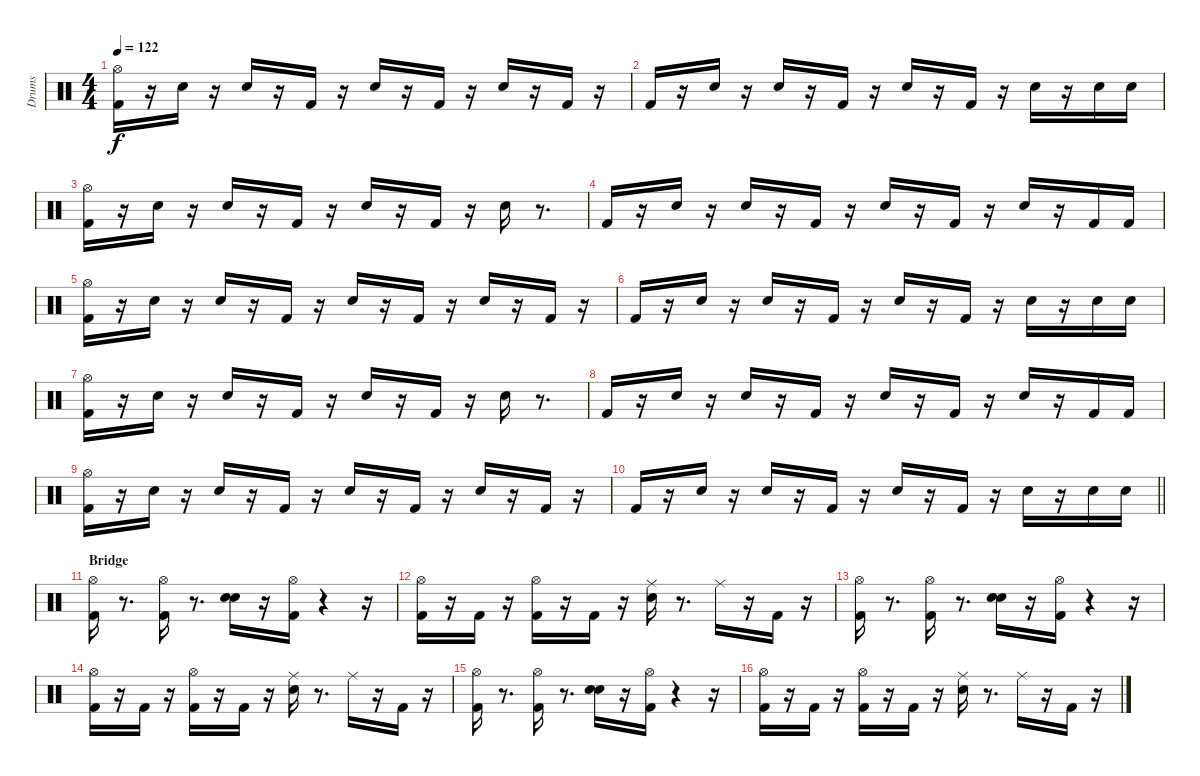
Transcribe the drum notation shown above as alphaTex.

\track ("Drums" "Drums") {instrument percussion}
\staff
\articulation defaults
\ts (4 4)
\tempo 122
\clef neutral
\ks c
("Hi-Hat (open)" "Kick (hit) 2").16{dy f} r.16 "Snare (hit) 2".16 r.16 "Snare (hit) 2".16 r.16 "Kick (hit) 2".16 r.16 "Snare (hit) 2".16 r.16 "Kick (hit) 2".16 r.16 "Snare (hit) 2".16 r.16 "Kick (hit) 2".16 r.16 |
"Kick (hit) 2".16 r.16 "Snare (hit) 2".16 r.16 "Snare (hit) 2".16 r.16 "Kick (hit) 2".16 r.16 "Snare (hit) 2".16 r.16 "Kick (hit) 2".16 r.16 "Snare (hit) 2".16 r.16 "Snare (hit) 2".16 "Snare (hit) 2".16 |
("Hi-Hat (open)" "Kick (hit) 2").16 r.16 "Snare (hit) 2".16 r.16 "Snare (hit) 2".16 r.16 "Kick (hit) 2".16 r.16 "Snare (hit) 2".16 r.16 "Kick (hit) 2".16 r.16 "Snare (hit) 2".16 r.8{d} |
"Kick (hit) 2".16 r.16 "Snare (hit) 2".16 r.16 "Snare (hit) 2".16 r.16 "Kick (hit) 2".16 r.16 "Snare (hit) 2".16 r.16 "Kick (hit) 2".16 r.16 "Snare (hit) 2".16 r.16 "Kick (hit) 2".16 "Kick (hit) 2".16 |
("Hi-Hat (open)" "Kick (hit) 2").16 r.16 "Snare (hit) 2".16 r.16 "Snare (hit) 2".16 r.16 "Kick (hit) 2".16 r.16 "Snare (hit) 2".16 r.16 "Kick (hit) 2".16 r.16 "Snare (hit) 2".16 r.16 "Kick (hit) 2".16 r.16 |
"Kick (hit) 2".16 r.16 "Snare (hit) 2".16 r.16 "Snare (hit) 2".16 r.16 "Kick (hit) 2".16 r.16 "Snare (hit) 2".16 r.16 "Kick (hit) 2".16 r.16 "Snare (hit) 2".16 r.16 "Snare (hit) 2".16 "Snare (hit) 2".16 |
("Hi-Hat (open)" "Kick (hit) 2").16 r.16 "Snare (hit) 2".16 r.16 "Snare (hit) 2".16 r.16 "Kick (hit) 2".16 r.16 "Snare (hit) 2".16 r.16 "Kick (hit) 2".16 r.16 "Snare (hit) 2".16 r.8{d} |
"Kick (hit) 2".16 r.16 "Snare (hit) 2".16 r.16 "Snare (hit) 2".16 r.16 "Kick (hit) 2".16 r.16 "Snare (hit) 2".16 r.16 "Kick (hit) 2".16 r.16 "Snare (hit) 2".16 r.16 "Kick (hit) 2".16 "Kick (hit) 2".16 |
("Hi-Hat (open)" "Kick (hit) 2").16 r.16 "Snare (hit) 2".16 r.16 "Snare (hit) 2".16 r.16 "Kick (hit) 2".16 r.16 "Snare (hit) 2".16 r.16 "Kick (hit) 2".16 r.16 "Snare (hit) 2".16 r.16 "Kick (hit) 2".16 r.16 |
\barLineRight lightlight "Kick (hit) 2".16
r.16 "Snare (hit) 2".16 r.16 "Snare (hit) 2".16 r.16 "Kick (hit) 2".16 r.16 "Snare (hit) 2".16 r.16 "Kick (hit) 2".16 r.16 "Snare (hit) 2".16 r.16 "Snare (hit) 2".16 "Snare (hit) 2".16 |
\section ("" "Bridge")
("Kick (hit) 2" "Hi-Hat (open)").16 r.8{d} ("Kick (hit) 2" "Hi-Hat (open)").16 r.8{d} ("Electric Snare (hit)" "Snare (hit) 2").16 r.16 ("Kick (hit) 2" "Hi-Hat (open)").16 r.4 r.16 |
("Kick (hit) 2" "Hi-Hat (open)").16 r.16 "Kick (hit) 2".16 r.16 ("Kick (hit) 2" "Hi-Hat (open)").16 r.16 "Kick (hit) 2".16 r.16 ("Snare (hit) 2" "Ride (middle)").16 r.8{d} "Ride (middle)".16 r.16 "Kick (hit) 2".16 r.16 |
("Kick (hit) 2" "Hi-Hat (open)").16 r.8{d} ("Kick (hit) 2" "Hi-Hat (open)").16 r.8{d} ("Electric Snare (hit)" "Snare (hit) 2").16 r.16 ("Kick (hit) 2" "Hi-Hat (open)").16 r.4 r.16 |
("Kick (hit) 2" "Hi-Hat (open)").16 r.16 "Kick (hit) 2".16 r.16 ("Kick (hit) 2" "Hi-Hat (open)").16 r.16 "Kick (hit) 2".16 r.16 ("Snare (hit) 2" "Ride (middle)").16 r.8{d} "Ride (middle)".16 r.16 "Kick (hit) 2".16 r.16 |
("Kick (hit) 2" "Hi-Hat (open)").16 r.8{d} ("Kick (hit) 2" "Hi-Hat (open)").16 r.8{d} ("Electric Snare (hit)" "Snare (hit) 2").16 r.16 ("Kick (hit) 2" "Hi-Hat (open)").16 r.4 r.16 |
("Kick (hit) 2" "Hi-Hat (open)").16 r.16 "Kick (hit) 2".16 r.16 ("Kick (hit) 2" "Hi-Hat (open)").16 r.16 "Kick (hit) 2".16 r.16 ("Snare (hit) 2" "Ride (middle)").16 r.8{d} "Ride (middle)".16 r.16 "Kick (hit) 2".16 r.16
